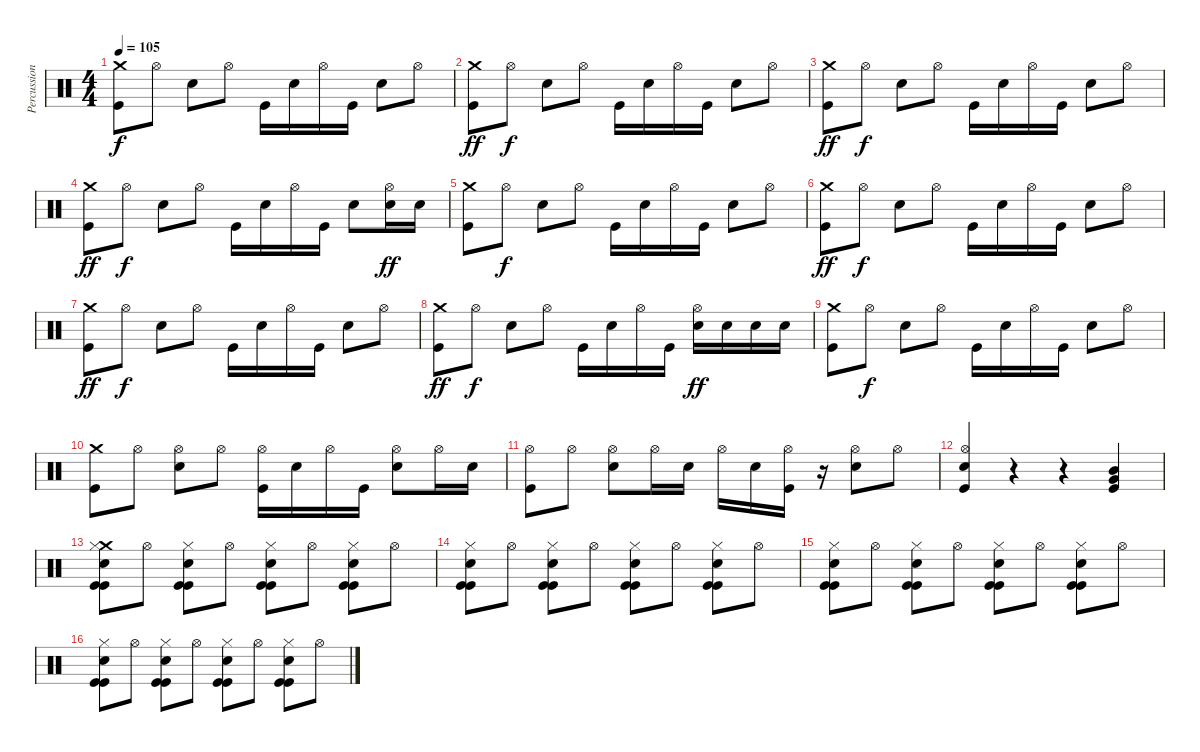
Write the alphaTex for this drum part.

\track ("Percussion" "Percussion") {instrument percussion}
\staff {score}
\articulation defaults
\ts (4 4)
\tempo 105
\clef neutral
\ks c
("Crash medium (hit)" "Kick (hit)").8{dy f} "Hi-Hat (open)".8 "Electric Snare (hit)".8 "Hi-Hat (open)".8 "Kick (hit)".16 "Electric Snare (hit)".16 "Hi-Hat (open)".16 "Kick (hit)".16 "Electric Snare (hit)".8 "Hi-Hat (open)".8 |
("Crash medium (hit)" "Kick (hit)").8{dy ff} "Hi-Hat (open)".8{dy f} "Electric Snare (hit)".8 "Hi-Hat (open)".8 "Kick (hit)".16 "Electric Snare (hit)".16 "Hi-Hat (open)".16 "Kick (hit)".16 "Electric Snare (hit)".8 "Hi-Hat (open)".8 |
("Crash medium (hit)" "Kick (hit)").8{dy ff} "Hi-Hat (open)".8{dy f} "Electric Snare (hit)".8 "Hi-Hat (open)".8 "Kick (hit)".16 "Electric Snare (hit)".16 "Hi-Hat (open)".16 "Kick (hit)".16 "Electric Snare (hit)".8 "Hi-Hat (open)".8 |
("Crash medium (hit)" "Kick (hit)").8{dy ff} "Hi-Hat (open)".8{dy f} "Electric Snare (hit)".8 "Hi-Hat (open)".8 "Kick (hit)".16 "Electric Snare (hit)".16 "Hi-Hat (open)".16 "Kick (hit)".16 "Electric Snare (hit)".8 ("Hi-Hat (open)" "Electric Snare (hit)").16{dy ff} "Electric Snare (hit)".16 |
("Crash medium (hit)" "Kick (hit)").8 "Hi-Hat (open)".8{dy f} "Electric Snare (hit)".8 "Hi-Hat (open)".8 "Kick (hit)".16 "Electric Snare (hit)".16 "Hi-Hat (open)".16 "Kick (hit)".16 "Electric Snare (hit)".8 "Hi-Hat (open)".8 |
("Crash medium (hit)" "Kick (hit)").8{dy ff} "Hi-Hat (open)".8{dy f} "Electric Snare (hit)".8 "Hi-Hat (open)".8 "Kick (hit)".16 "Electric Snare (hit)".16 "Hi-Hat (open)".16 "Kick (hit)".16 "Electric Snare (hit)".8 "Hi-Hat (open)".8 |
("Crash medium (hit)" "Kick (hit)").8{dy ff} "Hi-Hat (open)".8{dy f} "Electric Snare (hit)".8 "Hi-Hat (open)".8 "Kick (hit)".16 "Electric Snare (hit)".16 "Hi-Hat (open)".16 "Kick (hit)".16 "Electric Snare (hit)".8 "Hi-Hat (open)".8 |
("Crash medium (hit)" "Kick (hit)").8{dy ff} "Hi-Hat (open)".8{dy f} "Electric Snare (hit)".8 "Hi-Hat (open)".8 "Kick (hit)".16 "Electric Snare (hit)".16 "Hi-Hat (open)".16 "Kick (hit)".16 ("Hi-Hat (open)" "Electric Snare (hit)").16{dy ff} "Electric Snare (hit)".16 "Electric Snare (hit)".16 "Electric Snare (hit)".16 |
("Crash medium (hit)" "Kick (hit)").8 "Hi-Hat (open)".8{dy f} "Electric Snare (hit)".8 "Hi-Hat (open)".8 "Kick (hit)".16 "Electric Snare (hit)".16 "Hi-Hat (open)".16 "Kick (hit)".16 "Electric Snare (hit)".8 "Hi-Hat (open)".8 |
("Crash medium (hit)" "Kick (hit)").8 "Hi-Hat (open)".8 ("Hi-Hat (open)" "Electric Snare (hit)").8 "Hi-Hat (open)".8 ("Hi-Hat (open)" "Kick (hit)").16 "Electric Snare (hit)".16 "Hi-Hat (open)".16 "Kick (hit)".16 ("Hi-Hat (open)" "Electric Snare (hit)").8 "Hi-Hat (open)".16 "Electric Snare (hit)".16 |
("Hi-Hat (open)" "Kick (hit)").8 "Hi-Hat (open)".8 ("Hi-Hat (open)" "Electric Snare (hit)").8 "Hi-Hat (open)".16 "Electric Snare (hit)".16 "Hi-Hat (open)".16 "Electric Snare (hit)".16 ("Hi-Hat (open)" "Kick (hit)").16 r.16 ("Hi-Hat (open)" "Electric Snare (hit)").8 "Hi-Hat (open)".8 |
("Hi-Hat (open)" "Electric Snare (hit)" "Kick (hit)").4 r.4 r.4 ("Mid Tom (hit)" "Very Low Tom (hit)" "Kick (hit)").4 |
("Crash medium (hit)" "Hi-Hat (closed)" "Snare (hit) 2" "Kick (hit)" "Kick (hit)").8 "Hi-Hat (open)".8 ("Hi-Hat (closed)" "Snare (hit) 2" "Kick (hit)" "Kick (hit)").8 "Hi-Hat (open)".8 ("Hi-Hat (closed)" "Snare (hit) 2" "Kick (hit)" "Kick (hit)").8 "Hi-Hat (open)".8 ("Hi-Hat (closed)" "Snare (hit) 2" "Kick (hit)" "Kick (hit)").8 "Hi-Hat (open)".8 |
("Hi-Hat (closed)" "Snare (hit) 2" "Kick (hit)" "Kick (hit)").8 "Hi-Hat (open)".8 ("Hi-Hat (closed)" "Snare (hit) 2" "Kick (hit)" "Kick (hit)").8 "Hi-Hat (open)".8 ("Hi-Hat (closed)" "Snare (hit) 2" "Kick (hit)" "Kick (hit)").8 "Hi-Hat (open)".8 ("Hi-Hat (closed)" "Snare (hit) 2" "Kick (hit)" "Kick (hit)").8 "Hi-Hat (open)".8 |
("Hi-Hat (closed)" "Snare (hit) 2" "Kick (hit)" "Kick (hit)").8 "Hi-Hat (open)".8 ("Hi-Hat (closed)" "Snare (hit) 2" "Kick (hit)" "Kick (hit)").8 "Hi-Hat (open)".8 ("Hi-Hat (closed)" "Snare (hit) 2" "Kick (hit)" "Kick (hit)").8 "Hi-Hat (open)".8 ("Hi-Hat (closed)" "Snare (hit) 2" "Kick (hit)" "Kick (hit)").8 "Hi-Hat (open)".8 |
("Hi-Hat (closed)" "Snare (hit) 2" "Kick (hit)" "Kick (hit)").8 "Hi-Hat (open)".8 ("Hi-Hat (closed)" "Snare (hit) 2" "Kick (hit)" "Kick (hit)").8 "Hi-Hat (open)".8 ("Hi-Hat (closed)" "Snare (hit) 2" "Kick (hit)" "Kick (hit)").8 "Hi-Hat (open)".8 ("Hi-Hat (closed)" "Snare (hit) 2" "Kick (hit)" "Kick (hit)").8 "Hi-Hat (open)".8
